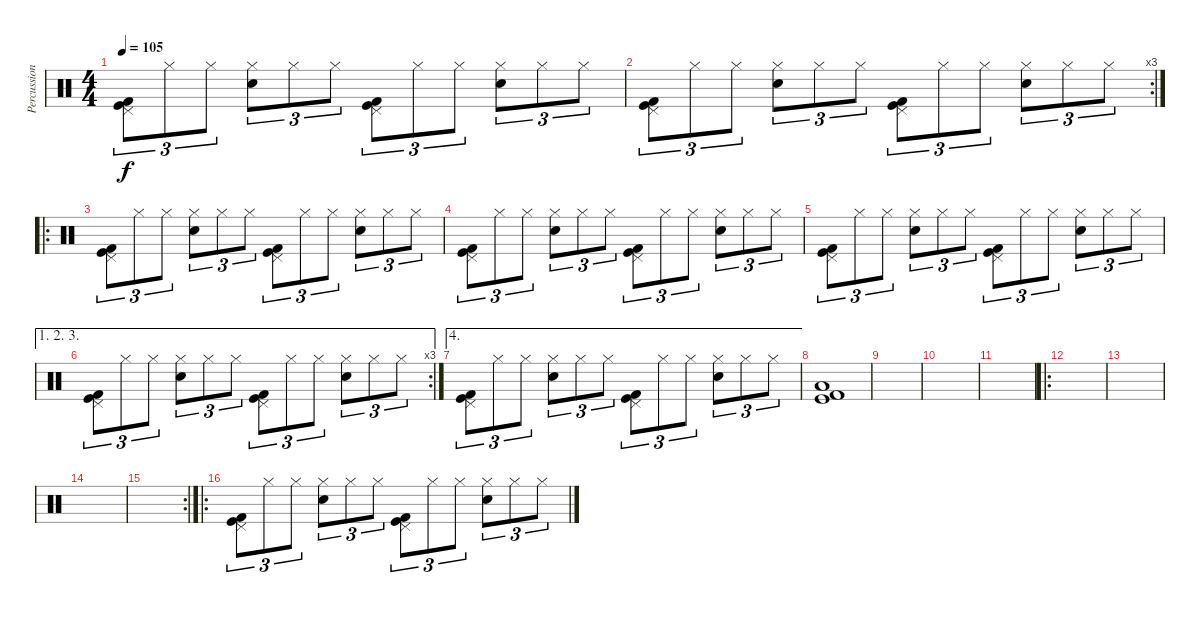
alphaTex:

\track ("Percussion" "Percussion") {instrument percussion}
\staff {score}
\articulation defaults
\ts (4 4)
\tempo 105
\clef neutral
\ks c
("Pedal Hi-Hat (hit)" "Kick (hit)" "Kick (hit) 2").8{tu (3 2) dy f} "Hi-Hat (closed)".8{tu (3 2)} "Hi-Hat (closed)".8{tu (3 2)} ("Hi-Hat (closed)" "Snare (hit) 2").8{tu (3 2)} "Hi-Hat (closed)".8{tu (3 2)} "Hi-Hat (closed)".8{tu (3 2)} ("Pedal Hi-Hat (hit)" "Kick (hit)" "Kick (hit) 2").8{tu (3 2)} "Hi-Hat (closed)".8{tu (3 2)} "Hi-Hat (closed)".8{tu (3 2)} ("Hi-Hat (closed)" "Snare (hit) 2").8{tu (3 2)} "Hi-Hat (closed)".8{tu (3 2)} "Hi-Hat (closed)".8{tu (3 2)} |
\rc 3
("Pedal Hi-Hat (hit)" "Kick (hit)" "Kick (hit) 2").8{tu (3 2)} "Hi-Hat (closed)".8{tu (3 2)} "Hi-Hat (closed)".8{tu (3 2)} ("Hi-Hat (closed)" "Snare (hit) 2").8{tu (3 2)} "Hi-Hat (closed)".8{tu (3 2)} "Hi-Hat (closed)".8{tu (3 2)} ("Pedal Hi-Hat (hit)" "Kick (hit)" "Kick (hit) 2").8{tu (3 2)} "Hi-Hat (closed)".8{tu (3 2)} "Hi-Hat (closed)".8{tu (3 2)} ("Hi-Hat (closed)" "Snare (hit) 2").8{tu (3 2)} "Hi-Hat (closed)".8{tu (3 2)} "Hi-Hat (closed)".8{tu (3 2)} |
\ro
("Pedal Hi-Hat (hit)" "Kick (hit)" "Kick (hit) 2").8{tu (3 2)} "Hi-Hat (closed)".8{tu (3 2)} "Hi-Hat (closed)".8{tu (3 2)} ("Hi-Hat (closed)" "Snare (hit) 2").8{tu (3 2)} "Hi-Hat (closed)".8{tu (3 2)} "Hi-Hat (closed)".8{tu (3 2)} ("Pedal Hi-Hat (hit)" "Kick (hit)" "Kick (hit) 2").8{tu (3 2)} "Hi-Hat (closed)".8{tu (3 2)} "Hi-Hat (closed)".8{tu (3 2)} ("Hi-Hat (closed)" "Snare (hit) 2").8{tu (3 2)} "Hi-Hat (closed)".8{tu (3 2)} "Hi-Hat (closed)".8{tu (3 2)} |
("Pedal Hi-Hat (hit)" "Kick (hit)" "Kick (hit) 2").8{tu (3 2)} "Hi-Hat (closed)".8{tu (3 2)} "Hi-Hat (closed)".8{tu (3 2)} ("Hi-Hat (closed)" "Snare (hit) 2").8{tu (3 2)} "Hi-Hat (closed)".8{tu (3 2)} "Hi-Hat (closed)".8{tu (3 2)} ("Pedal Hi-Hat (hit)" "Kick (hit)" "Kick (hit) 2").8{tu (3 2)} "Hi-Hat (closed)".8{tu (3 2)} "Hi-Hat (closed)".8{tu (3 2)} ("Hi-Hat (closed)" "Snare (hit) 2").8{tu (3 2)} "Hi-Hat (closed)".8{tu (3 2)} "Hi-Hat (closed)".8{tu (3 2)} |
("Pedal Hi-Hat (hit)" "Kick (hit)" "Kick (hit) 2").8{tu (3 2)} "Hi-Hat (closed)".8{tu (3 2)} "Hi-Hat (closed)".8{tu (3 2)} ("Hi-Hat (closed)" "Snare (hit) 2").8{tu (3 2)} "Hi-Hat (closed)".8{tu (3 2)} "Hi-Hat (closed)".8{tu (3 2)} ("Pedal Hi-Hat (hit)" "Kick (hit)" "Kick (hit) 2").8{tu (3 2)} "Hi-Hat (closed)".8{tu (3 2)} "Hi-Hat (closed)".8{tu (3 2)} ("Hi-Hat (closed)" "Snare (hit) 2").8{tu (3 2)} "Hi-Hat (closed)".8{tu (3 2)} "Hi-Hat (closed)".8{tu (3 2)} |
\ae (1 2 3)
\rc 3
("Pedal Hi-Hat (hit)" "Kick (hit)" "Kick (hit) 2").8{tu (3 2)} "Hi-Hat (closed)".8{tu (3 2)} "Hi-Hat (closed)".8{tu (3 2)} ("Hi-Hat (closed)" "Snare (hit) 2").8{tu (3 2)} "Hi-Hat (closed)".8{tu (3 2)} "Hi-Hat (closed)".8{tu (3 2)} ("Pedal Hi-Hat (hit)" "Kick (hit)" "Kick (hit) 2").8{tu (3 2)} "Hi-Hat (closed)".8{tu (3 2)} "Hi-Hat (closed)".8{tu (3 2)} ("Hi-Hat (closed)" "Snare (hit) 2").8{tu (3 2)} "Hi-Hat (closed)".8{tu (3 2)} "Hi-Hat (closed)".8{tu (3 2)} |
\ae 4
("Pedal Hi-Hat (hit)" "Kick (hit)" "Kick (hit) 2").8{tu (3 2)} "Hi-Hat (closed)".8{tu (3 2)} "Hi-Hat (closed)".8{tu (3 2)} ("Hi-Hat (closed)" "Snare (hit) 2").8{tu (3 2)} "Hi-Hat (closed)".8{tu (3 2)} "Hi-Hat (closed)".8{tu (3 2)} ("Pedal Hi-Hat (hit)" "Kick (hit)" "Kick (hit) 2").8{tu (3 2)} "Hi-Hat (closed)".8{tu (3 2)} "Hi-Hat (closed)".8{tu (3 2)} ("Hi-Hat (closed)" "Snare (hit) 2").8{tu (3 2)} "Hi-Hat (closed)".8{tu (3 2)} "Hi-Hat (closed)".8{tu (3 2)} |
("Low Floor Tom (hit)" "Kick (hit)" "Kick (hit) 2").1 |
|
|
|
\ro
|
|
|
\rc 2
|
\ro
("Pedal Hi-Hat (hit)" "Kick (hit)" "Kick (hit) 2").8{tu (3 2)} "Hi-Hat (closed)".8{tu (3 2)} "Hi-Hat (closed)".8{tu (3 2)} ("Hi-Hat (closed)" "Snare (hit) 2").8{tu (3 2)} "Hi-Hat (closed)".8{tu (3 2)} "Hi-Hat (closed)".8{tu (3 2)} ("Pedal Hi-Hat (hit)" "Kick (hit)" "Kick (hit) 2").8{tu (3 2)} "Hi-Hat (closed)".8{tu (3 2)} "Hi-Hat (closed)".8{tu (3 2)} ("Hi-Hat (closed)" "Snare (hit) 2").8{tu (3 2)} "Hi-Hat (closed)".8{tu (3 2)} "Hi-Hat (closed)".8{tu (3 2)}
